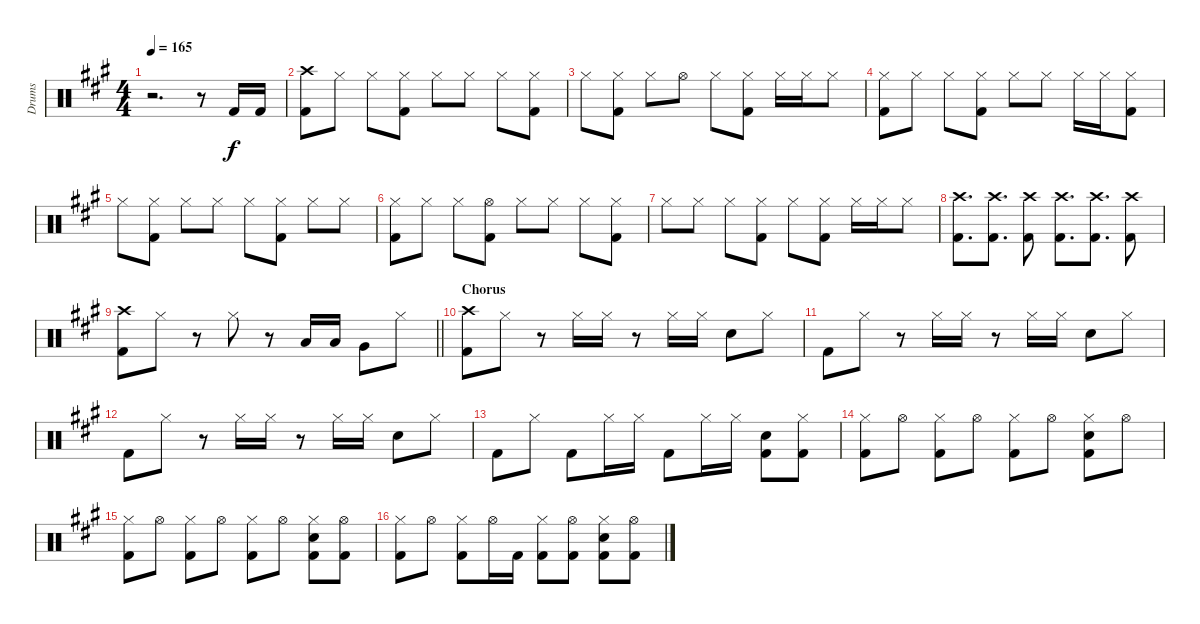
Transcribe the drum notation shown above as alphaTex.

\track ("Drums" "Drums") {instrument percussion}
\staff {score}
\articulation defaults
\ts (4 4)
\tempo 165
\clef neutral
\ks a
r.2{d dy f} r.8 "Kick (hit) 2".16 "Kick (hit) 2".16 |
("Crash high (hit)" "Kick (hit) 2").8 "Hi-Hat (closed)".8 "Hi-Hat (closed)".8 ("Hi-Hat (closed)" "Kick (hit) 2").8 "Hi-Hat (closed)".8 "Hi-Hat (closed)".8 "Hi-Hat (closed)".8 ("Hi-Hat (closed)" "Kick (hit) 2").8 |
"Hi-Hat (closed)".8 ("Hi-Hat (closed)" "Kick (hit) 2").8 "Hi-Hat (closed)".8 "Hi-Hat (open)".8 "Hi-Hat (closed)".8 ("Hi-Hat (closed)" "Kick (hit) 2").8 "Hi-Hat (closed)".16 "Hi-Hat (closed)".16 "Hi-Hat (closed)".8 |
("Hi-Hat (closed)" "Kick (hit) 2").8 "Hi-Hat (closed)".8 "Hi-Hat (closed)".8 ("Hi-Hat (closed)" "Kick (hit) 2").8 "Hi-Hat (closed)".8 "Hi-Hat (closed)".8 "Hi-Hat (closed)".16 "Hi-Hat (closed)".16 ("Hi-Hat (closed)" "Kick (hit) 2").8 |
"Hi-Hat (closed)".8 ("Hi-Hat (closed)" "Kick (hit) 2").8 "Hi-Hat (closed)".8 "Hi-Hat (closed)".8 "Hi-Hat (closed)".8 ("Hi-Hat (closed)" "Kick (hit) 2").8 "Hi-Hat (closed)".8 "Hi-Hat (closed)".8 |
("Hi-Hat (closed)" "Kick (hit) 2").8 "Hi-Hat (closed)".8 "Hi-Hat (closed)".8 ("Hi-Hat (open)" "Kick (hit) 2").8 "Hi-Hat (closed)".8 "Hi-Hat (closed)".8 "Hi-Hat (closed)".8 ("Hi-Hat (closed)" "Kick (hit) 2").8 |
"Hi-Hat (closed)".8 "Hi-Hat (closed)".8 "Hi-Hat (closed)".8 ("Hi-Hat (closed)" "Kick (hit) 2").8 "Hi-Hat (closed)".8 ("Hi-Hat (closed)" "Kick (hit) 2").8 "Hi-Hat (closed)".16 "Hi-Hat (closed)".16 "Hi-Hat (closed)".8 |
("Crash high (hit)" "Kick (hit) 2").8{d} ("Crash high (hit)" "Kick (hit) 2").8{d} ("Crash high (hit)" "Kick (hit) 2").8 ("Crash high (hit)" "Kick (hit) 2").8{d} ("Crash high (hit)" "Kick (hit) 2").8{d} ("Crash high (hit)" "Kick (hit) 2").8 |
\barLineRight lightlight
("Crash high (hit)" "Kick (hit) 2").8 "Hi-Hat (closed)".8 r.8 "Hi-Hat (closed)".8 r.8 "Low Tom (hit)".16 "Low Tom (hit)".16 "Very Low Tom (hit)".8 "Hi-Hat (closed)".8 |
\section ("" "Chorus")
("Crash high (hit)" "Kick (hit) 2").8 "Hi-Hat (closed)".8 r.8 "Hi-Hat (closed)".16 "Hi-Hat (closed)".16 r.8 "Hi-Hat (closed)".16 "Hi-Hat (closed)".16 "Snare (hit) 2".8 "Hi-Hat (closed)".8 |
"Kick (hit) 2".8 "Hi-Hat (closed)".8 r.8 "Hi-Hat (closed)".16 "Hi-Hat (closed)".16 r.8 "Hi-Hat (closed)".16 "Hi-Hat (closed)".16 "Snare (hit) 2".8 "Hi-Hat (closed)".8 |
"Kick (hit) 2".8 "Hi-Hat (closed)".8 r.8 "Hi-Hat (closed)".16 "Hi-Hat (closed)".16 r.8 "Hi-Hat (closed)".16 "Hi-Hat (closed)".16 "Snare (hit) 2".8 "Hi-Hat (closed)".8 |
"Kick (hit) 2".8 "Hi-Hat (closed)".8 "Kick (hit) 2".8 "Hi-Hat (closed)".16 "Hi-Hat (closed)".16 "Kick (hit) 2".8 "Hi-Hat (closed)".16 "Hi-Hat (closed)".16 ("Snare (hit) 2" "Kick (hit) 2").8 ("Hi-Hat (closed)" "Kick (hit) 2").8 |
("Hi-Hat (closed)" "Kick (hit) 2").8 "Hi-Hat (open)".8 ("Hi-Hat (closed)" "Kick (hit) 2").8 "Hi-Hat (open)".8 ("Hi-Hat (closed)" "Kick (hit) 2").8 "Hi-Hat (open)".8 ("Hi-Hat (closed)" "Snare (hit) 2" "Kick (hit) 2").8 "Hi-Hat (open)".8 |
("Hi-Hat (closed)" "Kick (hit) 2").8 "Hi-Hat (open)".8 ("Hi-Hat (closed)" "Kick (hit) 2").8 "Hi-Hat (open)".8 ("Hi-Hat (closed)" "Kick (hit) 2").8 "Hi-Hat (open)".8 ("Hi-Hat (closed)" "Snare (hit) 2" "Kick (hit) 2").8 ("Hi-Hat (open)" "Kick (hit) 2").8 |
("Hi-Hat (closed)" "Kick (hit) 2").8 "Hi-Hat (open)".8 ("Hi-Hat (closed)" "Kick (hit) 2").8 "Hi-Hat (open)".16 "Kick (hit) 2".16 ("Hi-Hat (closed)" "Kick (hit) 2").8 ("Hi-Hat (open)" "Kick (hit) 2").8 ("Hi-Hat (closed)" "Snare (hit) 2" "Kick (hit) 2").8 ("Hi-Hat (open)" "Kick (hit) 2").8
